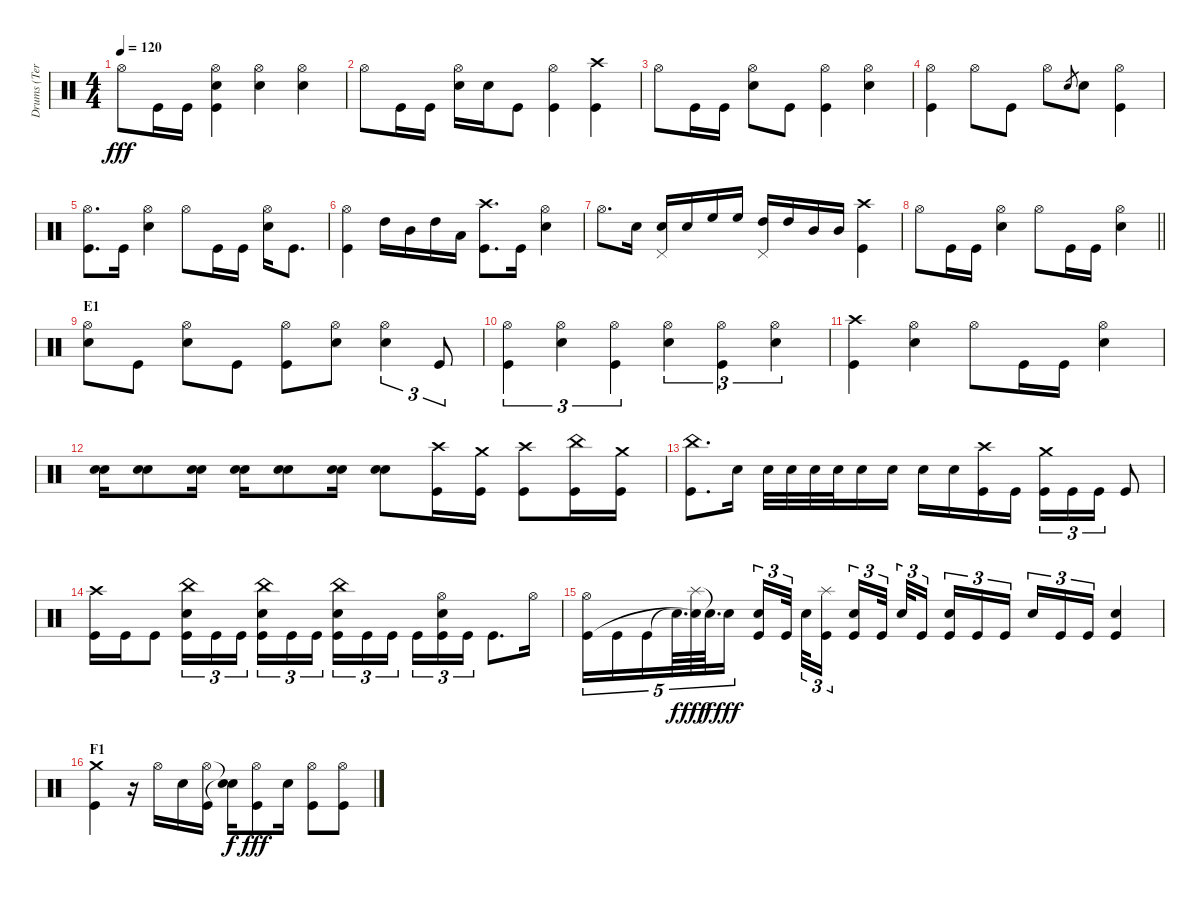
\track ("Drums (Terry Bozzio)" "Drums (Ter") {instrument percussion}
\staff {score}
\articulation defaults
\ts (4 4)
\tempo 120
\clef neutral
\ks c "Hi-Hat (open)".8{dy fff} "Kick (hit)".16 "Kick (hit)".16
("Hi-Hat (open)" "Snare (hit) 2" "Kick (hit)").4 ("Hi-Hat (open)" "Snare (hit) 2").4 ("Hi-Hat (open)" "Snare (hit) 2").4 |
"Hi-Hat (open)".8 "Kick (hit)".16 "Kick (hit)".16 ("Hi-Hat (open)" "Snare (hit) 2").16 "Snare (hit) 2".16 "Kick (hit)".8 ("Hi-Hat (open)" "Kick (hit)").4 ("Crash high (hit)" "Kick (hit)").4 |
"Hi-Hat (open)".8 "Kick (hit)".16 "Kick (hit)".16 ("Hi-Hat (open)" "Snare (hit) 2").8 "Kick (hit)".8 ("Hi-Hat (open)" "Kick (hit)").4 ("Hi-Hat (open)" "Snare (hit) 2").4 |
("Hi-Hat (open)" "Kick (hit)").4 "Hi-Hat (open)".8 "Kick (hit)".8 "Hi-Hat (open)".8 "Snare (hit) 2".8{gr} "Snare (hit) 2".8 ("Hi-Hat (open)" "Kick (hit)").4 |
("Hi-Hat (open)" "Kick (hit)").8{d} "Kick (hit)".16 ("Hi-Hat (open)" "Snare (hit) 2").4 "Hi-Hat (open)".8 "Kick (hit)".16 "Kick (hit)".16 ("Hi-Hat (open)" "Snare (hit) 2").16 "Kick (hit)".8{d} |
("Hi-Hat (open)" "Kick (hit)").4 "High Tom (hit)".16 "Mid Tom (hit)".16 "High Tom (hit)".16 "Low Tom (hit)".16 ("Crash high (hit)" "Kick (hit)").8{d} "Kick (hit)".16 ("Hi-Hat (open)" "Snare (hit) 2").4 |
"Hi-Hat (open)".8{d} "Snare (hit) 2".16 ("Pedal Hi-Hat (hit)" "Snare (hit) 2").16 "Snare (hit) 2".16 "High Floor Tom (hit)".16 "High Floor Tom (hit)".16 ("Pedal Hi-Hat (hit)" "High Tom (hit)").16 "High Tom (hit)".16 "Mid Tom (hit)".16 "Mid Tom (hit)".16 ("Crash high (hit)" "Kick (hit)").4 |
\barLineRight lightlight "Hi-Hat (open)".8 "Kick (hit)".16 "Kick (hit)".16
("Hi-Hat (open)" "Snare (hit) 2").4 "Hi-Hat (open)".8 "Kick (hit)".16 "Kick (hit)".16 ("Hi-Hat (open)" "Snare (hit) 2").4 |
\section ("" "E1")
("Hi-Hat (open)" "Snare (hit) 2").8 "Kick (hit)".8 ("Hi-Hat (open)" "Snare (hit) 2").8 "Kick (hit)".8 ("Hi-Hat (open)" "Kick (hit)").8 ("Hi-Hat (open)" "Snare (hit) 2").8 ("Hi-Hat (open)" "Snare (hit) 2").4{tu (3 2)} "Kick (hit)".8{tu (3 2)} |
("Hi-Hat (open)" "Kick (hit)").4{tu (3 2)} ("Hi-Hat (open)" "Snare (hit) 2").4{tu (3 2)} ("Hi-Hat (open)" "Kick (hit)").4{tu (3 2)} ("Hi-Hat (open)" "Snare (hit) 2").4{tu (3 2)} ("Hi-Hat (open)" "Kick (hit)").4{tu (3 2)} ("Hi-Hat (open)" "Snare (hit) 2").4{tu (3 2)} |
("Crash high (hit)" "Kick (hit)").4 ("Hi-Hat (open)" "Snare (hit) 2").4 "Hi-Hat (open)".8 "Kick (hit)".16 "Kick (hit)".16 ("Hi-Hat (open)" "Snare (hit) 2").4 |
("Snare (hit) 2" "Snare (hit) 2").16 ("Snare (hit) 2" "Snare (hit) 2").8 ("Snare (hit) 2" "Snare (hit) 2").16 ("Snare (hit) 2" "Snare (hit) 2").16 ("Snare (hit) 2" "Snare (hit) 2").8 ("Snare (hit) 2" "Snare (hit) 2").16 ("Snare (hit) 2" "Snare (hit) 2").8 ("Crash high (hit)" "Kick (hit)").16 ("Crash medium (hit)" "Kick (hit)").16 ("Crash high (hit)" "Kick (hit)").8 ("China (hit)" "Kick (hit)").16 ("Crash medium (hit)" "Kick (hit)").16 |
("China (hit)" "Kick (hit)").8{d} "Snare (hit) 2".16 "Snare (hit) 2".32 "Snare (hit) 2".32 "Snare (hit) 2".32 "Snare (hit) 2".32 "Snare (hit) 2".16 "Snare (hit) 2".16 "Snare (hit) 2".16 "Snare (hit) 2".16 ("Crash high (hit)" "Kick (hit)").16 "Kick (hit)".16 ("Crash medium (hit)" "Kick (hit)").16{tu (3 2)} "Kick (hit)".16{tu (3 2)} "Kick (hit)".16{tu (3 2)} "Kick (hit)".8 |
("Crash high (hit)" "Kick (hit)").16 "Kick (hit)".16 "Kick (hit)".8 ("China (hit)" "Snare (hit) 2" "Kick (hit)").16{tu (3 2)} "Kick (hit)".16{tu (3 2)} "Kick (hit)".16{tu (3 2)} ("China (hit)" "Snare (hit) 2" "Kick (hit)").16{tu (3 2)} "Kick (hit)".16{tu (3 2)} "Kick (hit)".16{tu (3 2)} ("China (hit)" "Snare (hit) 2" "Kick (hit)").16{tu (3 2)} "Kick (hit)".16{tu (3 2)} "Kick (hit)".16{tu (3 2)} "Kick (hit)".16{tu (3 2)} ("Hi-Hat (open)" "Snare (hit) 2" "Kick (hit)").16{tu (3 2)} "Kick (hit)".16{tu (3 2)} "Kick (hit)".8{d} "Hi-Hat (open)".16 |
("Hi-Hat (open)" "Kick (hit)").16{tu (5 4)} "Kick (hit)".16{tu (5 4)} "Kick (hit)".16{tu (5 4)} "Snare (hit)"{t}.64{d tu (5 4) dy f} ("Splash (hit)" "Snare (hit)"{t}).64{tu (5 4) dy fff} "Snare (hit)"{t}.64{d tu (5 4) dy f} "Snare (hit) 2".16{tu (5 4) dy fff} ("Snare (hit) 2" "Kick (hit)").16{tu (3 2)} "Kick (hit)".32{tu (3 2)} "Snare (hit) 2".32{tu (3 2)} ("Splash (hit)" "Kick (hit)").16{tu (3 2)} ("Snare (hit) 2" "Kick (hit)").16{tu (3 2)} "Kick (hit)".32{tu (3 2)} "Snare (hit) 2".32{tu (3 2)} "Kick (hit)".16{tu (3 2)} ("Snare (hit) 2" "Kick (hit)").16{tu (3 2)} "Kick (hit)".16{tu (3 2)} "Kick (hit)".16{tu (3 2)} "Snare (hit) 2".16{tu (3 2)} "Kick (hit)".16{tu (3 2)} "Kick (hit)".16{tu (3 2)} ("Snare (hit) 2" "Kick (hit)").4 |
\section ("" "F1")
("Crash medium (hit)" "Kick (hit)").4 r.16 "Hi-Hat (open)".16 "Snare (hit) 2".16 ("Hi-Hat (open)" "Kick (hit)").16 ("Snare (hit)"{t} "Snare (hit)"{t}).16{dy f} ("Hi-Hat (open)" "Kick (hit)").8{dy fff} "Snare (hit) 2".16 ("Hi-Hat (open)" "Kick (hit)").8 ("Hi-Hat (open)" "Kick (hit)").8
